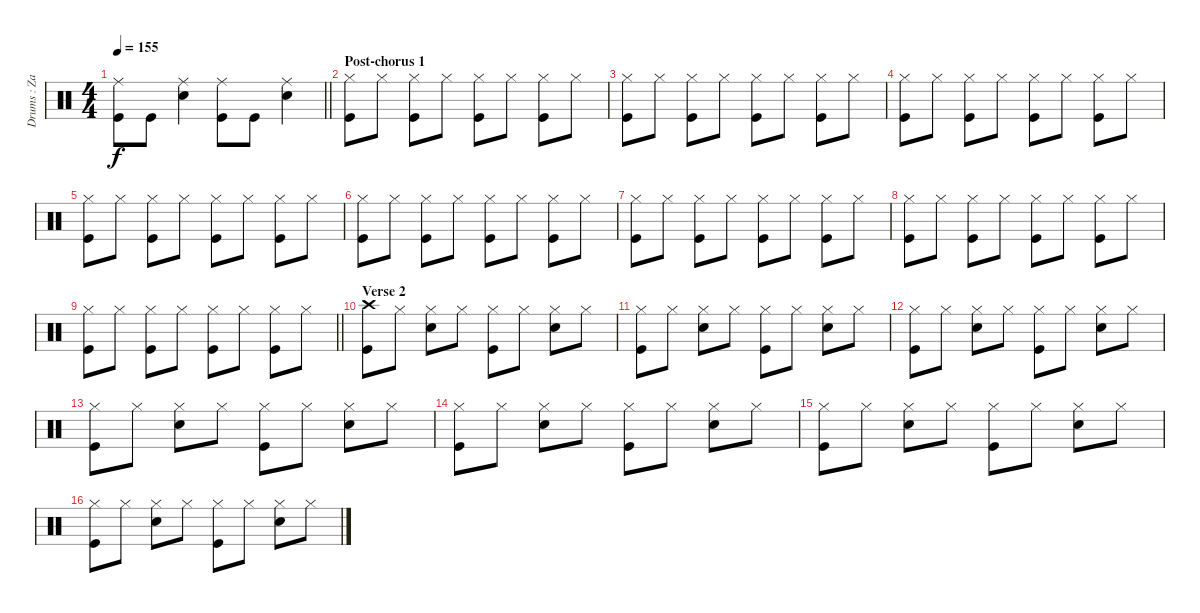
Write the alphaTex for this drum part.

\track ("Drums : Zach Lind" "Drums : Za") {instrument percussion}
\staff {score}
\articulation defaults
\ts (4 4)
\tempo 155
\clef neutral
\barLineRight lightlight
\ks c
("Ride (middle)" "Kick (hit)").8{dy f} "Kick (hit)".8 ("Ride (middle)" "Snare (hit) 2").4 ("Ride (middle)" "Kick (hit)").8 "Kick (hit)".8 ("Ride (middle)" "Snare (hit) 2").4 |
\section ("" "Post-chorus 1")
("Hi-Hat (closed)" "Kick (hit)").8 "Hi-Hat (closed)".8 ("Hi-Hat (closed)" "Kick (hit)").8 "Hi-Hat (closed)".8 ("Hi-Hat (closed)" "Kick (hit)").8 "Hi-Hat (closed)".8 ("Hi-Hat (closed)" "Kick (hit)").8 "Hi-Hat (closed)".8 |
("Hi-Hat (closed)" "Kick (hit)").8 "Hi-Hat (closed)".8 ("Hi-Hat (closed)" "Kick (hit)").8 "Hi-Hat (closed)".8 ("Hi-Hat (closed)" "Kick (hit)").8 "Hi-Hat (closed)".8 ("Hi-Hat (closed)" "Kick (hit)").8 "Hi-Hat (closed)".8 |
("Hi-Hat (closed)" "Kick (hit)").8 "Hi-Hat (closed)".8 ("Hi-Hat (closed)" "Kick (hit)").8 "Hi-Hat (closed)".8 ("Hi-Hat (closed)" "Kick (hit)").8 "Hi-Hat (closed)".8 ("Hi-Hat (closed)" "Kick (hit)").8 "Hi-Hat (closed)".8 |
("Hi-Hat (closed)" "Kick (hit)").8 "Hi-Hat (closed)".8 ("Hi-Hat (closed)" "Kick (hit)").8 "Hi-Hat (closed)".8 ("Hi-Hat (closed)" "Kick (hit)").8 "Hi-Hat (closed)".8 ("Hi-Hat (closed)" "Kick (hit)").8 "Hi-Hat (closed)".8 |
("Hi-Hat (closed)" "Kick (hit)").8 "Hi-Hat (closed)".8 ("Hi-Hat (closed)" "Kick (hit)").8 "Hi-Hat (closed)".8 ("Hi-Hat (closed)" "Kick (hit)").8 "Hi-Hat (closed)".8 ("Hi-Hat (closed)" "Kick (hit)").8 "Hi-Hat (closed)".8 |
("Hi-Hat (closed)" "Kick (hit)").8 "Hi-Hat (closed)".8 ("Hi-Hat (closed)" "Kick (hit)").8 "Hi-Hat (closed)".8 ("Hi-Hat (closed)" "Kick (hit)").8 "Hi-Hat (closed)".8 ("Hi-Hat (closed)" "Kick (hit)").8 "Hi-Hat (closed)".8 |
("Hi-Hat (closed)" "Kick (hit)").8 "Hi-Hat (closed)".8 ("Hi-Hat (closed)" "Kick (hit)").8 "Hi-Hat (closed)".8 ("Hi-Hat (closed)" "Kick (hit)").8 "Hi-Hat (closed)".8 ("Hi-Hat (closed)" "Kick (hit)").8 "Hi-Hat (closed)".8 |
\barLineRight lightlight
("Hi-Hat (closed)" "Kick (hit)").8 "Hi-Hat (closed)".8 ("Hi-Hat (closed)" "Kick (hit)").8 "Hi-Hat (closed)".8 ("Hi-Hat (closed)" "Kick (hit)").8 "Hi-Hat (closed)".8 ("Hi-Hat (closed)" "Kick (hit)").8 "Hi-Hat (closed)".8 |
\section ("" "Verse 2")
("Crash high (hit)" "Kick (hit)").8 "Hi-Hat (closed)".8 ("Hi-Hat (closed)" "Snare (hit) 2").8 "Hi-Hat (closed)".8 ("Hi-Hat (closed)" "Kick (hit)").8 "Hi-Hat (closed)".8 ("Hi-Hat (closed)" "Snare (hit) 2").8 "Hi-Hat (closed)".8 |
("Hi-Hat (closed)" "Kick (hit)").8 "Hi-Hat (closed)".8 ("Hi-Hat (closed)" "Snare (hit) 2").8 "Hi-Hat (closed)".8 ("Hi-Hat (closed)" "Kick (hit)").8 "Hi-Hat (closed)".8 ("Hi-Hat (closed)" "Snare (hit) 2").8 "Hi-Hat (closed)".8 |
("Hi-Hat (closed)" "Kick (hit)").8 "Hi-Hat (closed)".8 ("Hi-Hat (closed)" "Snare (hit) 2").8 "Hi-Hat (closed)".8 ("Hi-Hat (closed)" "Kick (hit)").8 "Hi-Hat (closed)".8 ("Hi-Hat (closed)" "Snare (hit) 2").8 "Hi-Hat (closed)".8 |
("Hi-Hat (closed)" "Kick (hit)").8 "Hi-Hat (closed)".8 ("Hi-Hat (closed)" "Snare (hit) 2").8 "Hi-Hat (closed)".8 ("Hi-Hat (closed)" "Kick (hit)").8 "Hi-Hat (closed)".8 ("Hi-Hat (closed)" "Snare (hit) 2").8 "Hi-Hat (closed)".8 |
("Hi-Hat (closed)" "Kick (hit)").8 "Hi-Hat (closed)".8 ("Hi-Hat (closed)" "Snare (hit) 2").8 "Hi-Hat (closed)".8 ("Hi-Hat (closed)" "Kick (hit)").8 "Hi-Hat (closed)".8 ("Hi-Hat (closed)" "Snare (hit) 2").8 "Hi-Hat (closed)".8 |
("Hi-Hat (closed)" "Kick (hit)").8 "Hi-Hat (closed)".8 ("Hi-Hat (closed)" "Snare (hit) 2").8 "Hi-Hat (closed)".8 ("Hi-Hat (closed)" "Kick (hit)").8 "Hi-Hat (closed)".8 ("Hi-Hat (closed)" "Snare (hit) 2").8 "Hi-Hat (closed)".8 |
("Hi-Hat (closed)" "Kick (hit)").8 "Hi-Hat (closed)".8 ("Hi-Hat (closed)" "Snare (hit) 2").8 "Hi-Hat (closed)".8 ("Hi-Hat (closed)" "Kick (hit)").8 "Hi-Hat (closed)".8 ("Hi-Hat (closed)" "Snare (hit) 2").8 "Hi-Hat (closed)".8
